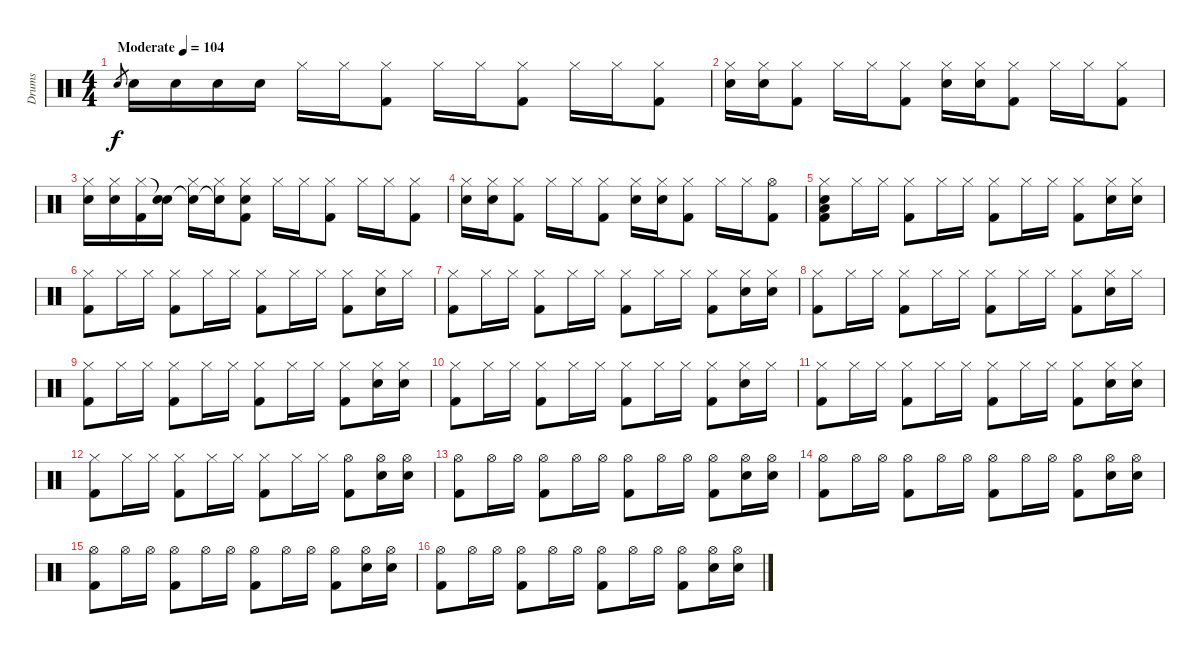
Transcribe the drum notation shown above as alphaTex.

\track ("Drums" "Drums") {instrument percussion}
\staff {score}
\articulation defaults
\ts (4 4)
\tempo (104 "Moderate")
\clef neutral
\ks c "Electric Snare (hit)".8{gr dy f} "Electric Snare (hit)".16 "Electric Snare (hit)".16 "Electric Snare (hit)".16 "Electric Snare (hit)".16 "Hi-Hat (closed)".16 "Hi-Hat (closed)".16
("Hi-Hat (closed)" "Kick (hit) 2").8 "Hi-Hat (closed)".16 "Hi-Hat (closed)".16 ("Hi-Hat (closed)" "Kick (hit) 2").8 "Hi-Hat (closed)".16 "Hi-Hat (closed)".16 ("Hi-Hat (closed)" "Kick (hit) 2").8 |
("Hi-Hat (closed)" "Electric Snare (hit)").16 ("Hi-Hat (closed)" "Electric Snare (hit)").16 ("Hi-Hat (closed)" "Kick (hit) 2").8 "Hi-Hat (closed)".16 "Hi-Hat (closed)".16 ("Hi-Hat (closed)" "Kick (hit) 2").8 ("Hi-Hat (closed)" "Electric Snare (hit)").16 ("Hi-Hat (closed)" "Electric Snare (hit)").16 ("Hi-Hat (closed)" "Kick (hit) 2").8 "Hi-Hat (closed)".16 "Hi-Hat (closed)".16 ("Hi-Hat (closed)" "Kick (hit) 2").8 |
("Hi-Hat (closed)" "Electric Snare (hit)").16 ("Hi-Hat (closed)" "Electric Snare (hit)").16 ("Hi-Hat (closed)" "Kick (hit) 2").16 ("Snare (hit)"{t} "Electric Snare (hit)").16 ("Hi-Hat (closed)" "Snare (hit)"{t}).16 ("Hi-Hat (closed)" "Snare (hit)"{t}).16 ("Hi-Hat (closed)" "Electric Snare (hit)" "Kick (hit) 2").8 "Hi-Hat (closed)".16 "Hi-Hat (closed)".16 ("Hi-Hat (closed)" "Kick (hit) 2").8 "Hi-Hat (closed)".16 "Hi-Hat (closed)".16 ("Hi-Hat (closed)" "Kick (hit) 2").8 |
("Hi-Hat (closed)" "Electric Snare (hit)").16 ("Hi-Hat (closed)" "Electric Snare (hit)").16 ("Hi-Hat (closed)" "Kick (hit) 2").8 "Hi-Hat (closed)".16 "Hi-Hat (closed)".16 ("Hi-Hat (closed)" "Kick (hit) 2").8 ("Hi-Hat (closed)" "Electric Snare (hit)").16 ("Hi-Hat (closed)" "Electric Snare (hit)").16 ("Hi-Hat (closed)" "Kick (hit) 2").8 "Hi-Hat (closed)".16 "Hi-Hat (closed)".16 ("Hi-Hat (open)" "Kick (hit) 2").8 |
("Hi-Hat (closed)" "Electric Snare (hit)" "Low Floor Tom (hit)" "Kick (hit) 2").8 "Hi-Hat (closed)".16 "Hi-Hat (closed)".16 ("Hi-Hat (closed)" "Kick (hit) 2").8 "Hi-Hat (closed)".16 "Hi-Hat (closed)".16 ("Hi-Hat (closed)" "Kick (hit) 2").8 "Hi-Hat (closed)".16 "Hi-Hat (closed)".16 ("Hi-Hat (closed)" "Kick (hit) 2").8 ("Hi-Hat (closed)" "Electric Snare (hit)").16 ("Hi-Hat (closed)" "Electric Snare (hit)").16 |
("Hi-Hat (closed)" "Kick (hit) 2").8 "Hi-Hat (closed)".16 "Hi-Hat (closed)".16 ("Hi-Hat (closed)" "Kick (hit) 2").8 "Hi-Hat (closed)".16 "Hi-Hat (closed)".16 ("Hi-Hat (closed)" "Kick (hit) 2").8 "Hi-Hat (closed)".16 "Hi-Hat (closed)".16 ("Hi-Hat (closed)" "Kick (hit) 2").8 ("Hi-Hat (closed)" "Electric Snare (hit)").16 "Hi-Hat (closed)".16 |
("Hi-Hat (closed)" "Kick (hit) 2").8 "Hi-Hat (closed)".16 "Hi-Hat (closed)".16 ("Hi-Hat (closed)" "Kick (hit) 2").8 "Hi-Hat (closed)".16 "Hi-Hat (closed)".16 ("Hi-Hat (closed)" "Kick (hit) 2").8 "Hi-Hat (closed)".16 "Hi-Hat (closed)".16 ("Hi-Hat (closed)" "Kick (hit) 2").8 ("Hi-Hat (closed)" "Electric Snare (hit)").16 ("Hi-Hat (closed)" "Electric Snare (hit)").16 |
("Hi-Hat (closed)" "Kick (hit) 2").8 "Hi-Hat (closed)".16 "Hi-Hat (closed)".16 ("Hi-Hat (closed)" "Kick (hit) 2").8 "Hi-Hat (closed)".16 "Hi-Hat (closed)".16 ("Hi-Hat (closed)" "Kick (hit) 2").8 "Hi-Hat (closed)".16 "Hi-Hat (closed)".16 ("Hi-Hat (closed)" "Kick (hit) 2").8 ("Hi-Hat (closed)" "Electric Snare (hit)").16 "Hi-Hat (closed)".16 |
("Hi-Hat (closed)" "Kick (hit) 2").8 "Hi-Hat (closed)".16 "Hi-Hat (closed)".16 ("Hi-Hat (closed)" "Kick (hit) 2").8 "Hi-Hat (closed)".16 "Hi-Hat (closed)".16 ("Hi-Hat (closed)" "Kick (hit) 2").8 "Hi-Hat (closed)".16 "Hi-Hat (closed)".16 ("Hi-Hat (closed)" "Kick (hit) 2").8 ("Hi-Hat (closed)" "Electric Snare (hit)").16 ("Hi-Hat (closed)" "Electric Snare (hit)").16 |
("Hi-Hat (closed)" "Kick (hit) 2").8 "Hi-Hat (closed)".16 "Hi-Hat (closed)".16 ("Hi-Hat (closed)" "Kick (hit) 2").8 "Hi-Hat (closed)".16 "Hi-Hat (closed)".16 ("Hi-Hat (closed)" "Kick (hit) 2").8 "Hi-Hat (closed)".16 "Hi-Hat (closed)".16 ("Hi-Hat (closed)" "Kick (hit) 2").8 ("Hi-Hat (closed)" "Electric Snare (hit)").16 "Hi-Hat (closed)".16 |
("Hi-Hat (closed)" "Kick (hit) 2").8 "Hi-Hat (closed)".16 "Hi-Hat (closed)".16 ("Hi-Hat (closed)" "Kick (hit) 2").8 "Hi-Hat (closed)".16 "Hi-Hat (closed)".16 ("Hi-Hat (closed)" "Kick (hit) 2").8 "Hi-Hat (closed)".16 "Hi-Hat (closed)".16 ("Hi-Hat (closed)" "Kick (hit) 2").8 ("Hi-Hat (closed)" "Electric Snare (hit)").16 ("Hi-Hat (closed)" "Electric Snare (hit)").16 |
("Hi-Hat (closed)" "Kick (hit) 2").8 "Hi-Hat (closed)".16 "Hi-Hat (closed)".16 ("Hi-Hat (closed)" "Kick (hit) 2").8 "Hi-Hat (closed)".16 "Hi-Hat (closed)".16 ("Hi-Hat (closed)" "Kick (hit) 2").8 "Hi-Hat (closed)".16 "Hi-Hat (closed)".16 ("Hi-Hat (open)" "Kick (hit) 2").8 ("Hi-Hat (open)" "Electric Snare (hit)").16 ("Hi-Hat (open)" "Electric Snare (hit)").16 |
("Hi-Hat (open)" "Kick (hit) 2").8 "Hi-Hat (open)".16 "Hi-Hat (open)".16 ("Hi-Hat (open)" "Kick (hit) 2").8 "Hi-Hat (open)".16 "Hi-Hat (open)".16 ("Hi-Hat (open)" "Kick (hit) 2").8 "Hi-Hat (open)".16 "Hi-Hat (open)".16 ("Hi-Hat (open)" "Kick (hit) 2").8 ("Hi-Hat (open)" "Electric Snare (hit)").16 ("Hi-Hat (open)" "Electric Snare (hit)").16 |
("Hi-Hat (open)" "Kick (hit) 2").8 "Hi-Hat (open)".16 "Hi-Hat (open)".16 ("Hi-Hat (open)" "Kick (hit) 2").8 "Hi-Hat (open)".16 "Hi-Hat (open)".16 ("Hi-Hat (open)" "Kick (hit) 2").8 "Hi-Hat (open)".16 "Hi-Hat (open)".16 ("Hi-Hat (open)" "Kick (hit) 2").8 ("Hi-Hat (open)" "Electric Snare (hit)").16 ("Hi-Hat (open)" "Electric Snare (hit)").16 |
("Hi-Hat (open)" "Kick (hit) 2").8 "Hi-Hat (open)".16 "Hi-Hat (open)".16 ("Hi-Hat (open)" "Kick (hit) 2").8 "Hi-Hat (open)".16 "Hi-Hat (open)".16 ("Hi-Hat (open)" "Kick (hit) 2").8 "Hi-Hat (open)".16 "Hi-Hat (open)".16 ("Hi-Hat (open)" "Kick (hit) 2").8 ("Hi-Hat (open)" "Electric Snare (hit)").16 ("Hi-Hat (open)" "Electric Snare (hit)").16 |
("Hi-Hat (open)" "Kick (hit) 2").8 "Hi-Hat (open)".16 "Hi-Hat (open)".16 ("Hi-Hat (open)" "Kick (hit) 2").8 "Hi-Hat (open)".16 "Hi-Hat (open)".16 ("Hi-Hat (open)" "Kick (hit) 2").8 "Hi-Hat (open)".16 "Hi-Hat (open)".16 ("Hi-Hat (open)" "Kick (hit) 2").8 ("Hi-Hat (open)" "Electric Snare (hit)").16 ("Hi-Hat (open)" "Electric Snare (hit)").16
